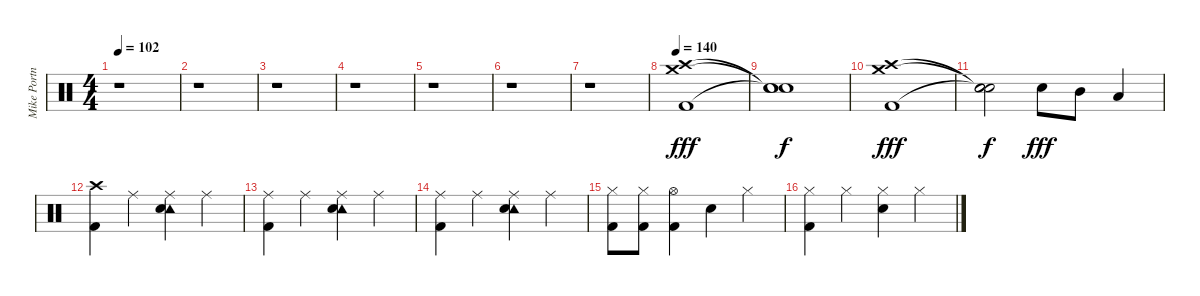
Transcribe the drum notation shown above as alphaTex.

\track ("Mike Portnoy - Drum" "Mike Portn") {instrument percussion}
\staff {score}
\articulation defaults
\ts (4 4)
\tempo 102
\clef neutral
\ks c
r.1{dy f} |
r.1 |
r.1 |
r.1 |
r.1 |
r.1 |
r.1 |
\tempo 140
("Crash medium (hit)" "Crash high (hit)" "Kick (hit) 2").1{dy fff} |
("Snare (hit)"{t} "Snare (hit)"{t} "Snare (hit)"{t}).1{dy f} |
("Crash high (hit)" "Crash medium (hit)" "Kick (hit) 2").1{dy fff} |
("Snare (hit)"{t} "Snare (hit)"{t} "Snare (hit)"{t}).2{dy f} "Snare (hit) 2".8{dy fff} "Mid Tom (hit)".8 "Low Tom (hit)".4 |
("Crash high (hit)" "Kick (hit) 2").4 "Ride (middle)".4 ("Tambourine (hit)" "Ride (middle)" "Snare (hit) 2").4 "Ride (middle)".4 |
("Ride (middle)" "Kick (hit) 2").4 "Ride (middle)".4 ("Tambourine (hit)" "Ride (middle)" "Snare (hit) 2").4 "Ride (middle)".4 |
("Ride (middle)" "Kick (hit) 2").4 "Ride (middle)".4 ("Tambourine (hit)" "Ride (middle)" "Snare (hit) 2").4 "Ride (middle)".4 |
("Hi-Hat (closed)" "Kick (hit) 2").8 ("Hi-Hat (closed)" "Kick (hit) 2").8 ("Hi-Hat (open)" "Kick (hit) 2").4 "Snare (hit) 2".4 "Hi-Hat (closed)".4 |
("Hi-Hat (closed)" "Kick (hit) 2").4 "Hi-Hat (closed)".4 ("Hi-Hat (closed)" "Snare (hit) 2").4 "Hi-Hat (closed)".4
